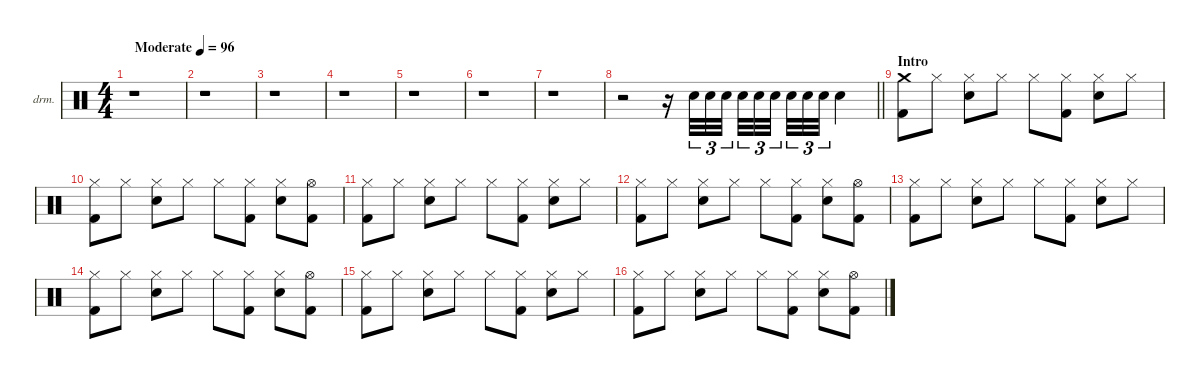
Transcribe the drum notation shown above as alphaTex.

\defaultSystemsLayout 4
\hideDynamics
\bracketExtendMode nobrackets
\firstSystemTrackNameOrientation horizontal
\otherSystemsTrackNameOrientation horizontal
\track ("Percussion" "drm.") {instrument percussion}
\staff {score}
\articulation defaults
\ts (4 4)
\beaming (8 2 2 2 2)
\tempo (96 "Moderate")
\clef neutral
\ks c
r.1{dy ppp beam Down} |
r.1{beam Down} |
r.1{beam Down} |
r.1{beam Down} |
r.1{beam Down} |
r.1{beam Down} |
r.1{beam Down} |
\barLineRight lightlight
r.2{beam Down} r.16{beam Down} "Snare (hit) 2".32{tu (3 2) beam Down} "Snare (hit) 2".32{tu (3 2) beam Down} "Snare (hit) 2".32{tu (3 2) dy pp beam Down} "Snare (hit) 2".32{tu (3 2) beam Down} "Snare (hit) 2".32{tu (3 2) dy p beam Down} "Snare (hit) 2".32{tu (3 2) beam Down} "Snare (hit) 2".32{tu (3 2) dy mp beam Down} "Snare (hit) 2".32{tu (3 2) beam Down} "Snare (hit) 2".32{tu (3 2) dy p beam Down} "Snare (hit) 2".4{dy fff beam Down} |
\section ("" "Intro")
("Crash medium (hit)" "Kick (hit) 2").8{dy f beam Down} "Hi-Hat (closed)".8{beam Down} ("Hi-Hat (closed)" "Snare (hit) 2").8{beam Down} "Hi-Hat (closed)".8{beam Down} "Hi-Hat (closed)".8{beam Down} ("Hi-Hat (closed)" "Kick (hit) 2").8{beam Down} ("Hi-Hat (closed)" "Snare (hit) 2").8{beam Down} "Hi-Hat (closed)".8{beam Down} |
("Hi-Hat (closed)" "Kick (hit) 2").8{beam Down} "Hi-Hat (closed)".8{beam Down} ("Hi-Hat (closed)" "Snare (hit) 2").8{beam Down} "Hi-Hat (closed)".8{beam Down} "Hi-Hat (closed)".8{beam Down} ("Hi-Hat (closed)" "Kick (hit) 2").8{beam Down} ("Hi-Hat (closed)" "Snare (hit) 2").8{beam Down} ("Hi-Hat (open)" "Kick (hit) 2").8{dy mf beam Down} |
("Hi-Hat (closed)" "Kick (hit) 2").8{dy f beam Down} "Hi-Hat (closed)".8{beam Down} ("Hi-Hat (closed)" "Snare (hit) 2").8{beam Down} "Hi-Hat (closed)".8{beam Down} "Hi-Hat (closed)".8{beam Down} ("Hi-Hat (closed)" "Kick (hit) 2").8{beam Down} ("Hi-Hat (closed)" "Snare (hit) 2").8{beam Down} "Hi-Hat (closed)".8{beam Down} |
("Hi-Hat (closed)" "Kick (hit) 2").8{beam Down} "Hi-Hat (closed)".8{beam Down} ("Hi-Hat (closed)" "Snare (hit) 2").8{beam Down} "Hi-Hat (closed)".8{beam Down} "Hi-Hat (closed)".8{beam Down} ("Hi-Hat (closed)" "Kick (hit) 2").8{beam Down} ("Hi-Hat (closed)" "Snare (hit) 2").8{beam Down} ("Hi-Hat (open)" "Kick (hit) 2").8{dy mf beam Down} |
("Hi-Hat (closed)" "Kick (hit) 2").8{dy f beam Down} "Hi-Hat (closed)".8{beam Down} ("Hi-Hat (closed)" "Snare (hit) 2").8{beam Down} "Hi-Hat (closed)".8{beam Down} "Hi-Hat (closed)".8{beam Down} ("Hi-Hat (closed)" "Kick (hit) 2").8{beam Down} ("Hi-Hat (closed)" "Snare (hit) 2").8{beam Down} "Hi-Hat (closed)".8{beam Down} |
("Hi-Hat (closed)" "Kick (hit) 2").8{beam Down} "Hi-Hat (closed)".8{beam Down} ("Hi-Hat (closed)" "Snare (hit) 2").8{beam Down} "Hi-Hat (closed)".8{beam Down} "Hi-Hat (closed)".8{beam Down} ("Hi-Hat (closed)" "Kick (hit) 2").8{beam Down} ("Hi-Hat (closed)" "Snare (hit) 2").8{beam Down} ("Hi-Hat (open)" "Kick (hit) 2").8{dy mf beam Down} |
("Hi-Hat (closed)" "Kick (hit) 2").8{dy f beam Down} "Hi-Hat (closed)".8{beam Down} ("Hi-Hat (closed)" "Snare (hit) 2").8{beam Down} "Hi-Hat (closed)".8{beam Down} "Hi-Hat (closed)".8{beam Down} ("Hi-Hat (closed)" "Kick (hit) 2").8{beam Down} ("Hi-Hat (closed)" "Snare (hit) 2").8{beam Down} "Hi-Hat (closed)".8{beam Down} |
("Hi-Hat (closed)" "Kick (hit) 2").8{beam Down} "Hi-Hat (closed)".8{beam Down} ("Hi-Hat (closed)" "Snare (hit) 2").8{beam Down} "Hi-Hat (closed)".8{beam Down} "Hi-Hat (closed)".8{beam Down} ("Hi-Hat (closed)" "Kick (hit) 2").8{beam Down} ("Hi-Hat (closed)" "Snare (hit) 2").8{beam Down} ("Hi-Hat (open)" "Kick (hit) 2").8{dy mf beam Down}
